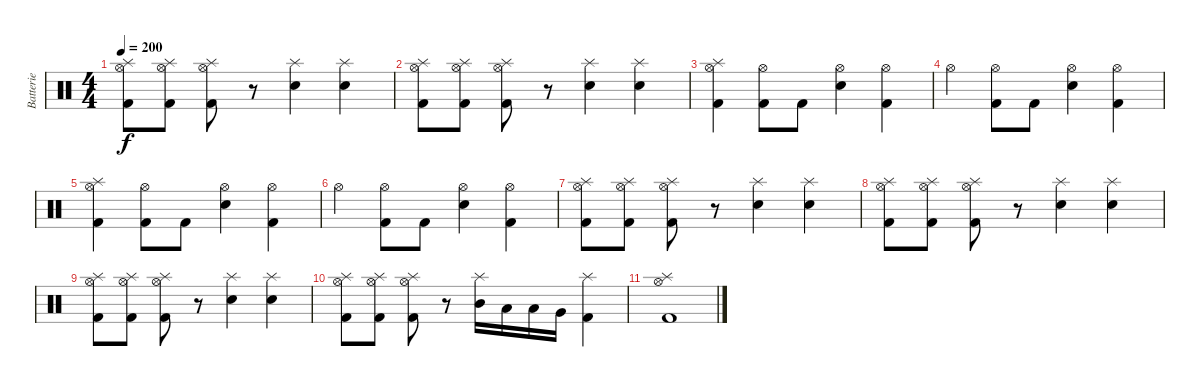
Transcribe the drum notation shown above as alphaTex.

\track ("Batterie" "Batterie") {instrument percussion}
\staff {score}
\articulation defaults
\ts (4 4)
\tempo 200
\clef neutral
\ks c
("Splash (hit)" "Hi-Hat (open)" "Kick (hit) 2").8{dy f} ("Splash (hit)" "Hi-Hat (open)" "Kick (hit) 2").8 ("Splash (hit)" "Hi-Hat (open)" "Kick (hit) 2").8 r.8 ("Splash (hit)" "Snare (hit) 2").4 ("Splash (hit)" "Snare (hit) 2").4 |
("Splash (hit)" "Hi-Hat (open)" "Kick (hit) 2").8 ("Splash (hit)" "Hi-Hat (open)" "Kick (hit) 2").8 ("Splash (hit)" "Hi-Hat (open)" "Kick (hit) 2").8 r.8 ("Splash (hit)" "Snare (hit) 2").4 ("Splash (hit)" "Snare (hit) 2").4 |
("Splash (hit)" "Hi-Hat (open)" "Kick (hit) 2").4 ("Hi-Hat (open)" "Kick (hit) 2").8 "Kick (hit) 2".8 ("Hi-Hat (open)" "Snare (hit) 2").4 ("Hi-Hat (open)" "Kick (hit) 2").4 |
"Hi-Hat (open)".4 ("Hi-Hat (open)" "Kick (hit) 2").8 "Kick (hit) 2".8 ("Hi-Hat (open)" "Snare (hit) 2").4 ("Hi-Hat (open)" "Kick (hit) 2").4 |
("Splash (hit)" "Hi-Hat (open)" "Kick (hit) 2").4 ("Hi-Hat (open)" "Kick (hit) 2").8 "Kick (hit) 2".8 ("Hi-Hat (open)" "Snare (hit) 2").4 ("Hi-Hat (open)" "Kick (hit) 2").4 |
"Hi-Hat (open)".4 ("Hi-Hat (open)" "Kick (hit) 2").8 "Kick (hit) 2".8 ("Hi-Hat (open)" "Snare (hit) 2").4 ("Hi-Hat (open)" "Kick (hit) 2").4 |
("Splash (hit)" "Hi-Hat (open)" "Kick (hit) 2").8 ("Splash (hit)" "Hi-Hat (open)" "Kick (hit) 2").8 ("Splash (hit)" "Hi-Hat (open)" "Kick (hit) 2").8 r.8 ("Splash (hit)" "Snare (hit) 2").4 ("Splash (hit)" "Snare (hit) 2").4 |
("Splash (hit)" "Hi-Hat (open)" "Kick (hit) 2").8 ("Splash (hit)" "Hi-Hat (open)" "Kick (hit) 2").8 ("Splash (hit)" "Hi-Hat (open)" "Kick (hit) 2").8 r.8 ("Splash (hit)" "Snare (hit) 2").4 ("Splash (hit)" "Snare (hit) 2").4 |
("Splash (hit)" "Hi-Hat (open)" "Kick (hit) 2").8 ("Splash (hit)" "Hi-Hat (open)" "Kick (hit) 2").8 ("Splash (hit)" "Hi-Hat (open)" "Kick (hit) 2").8 r.8 ("Splash (hit)" "Snare (hit) 2").4 ("Splash (hit)" "Snare (hit) 2").4 |
("Splash (hit)" "Hi-Hat (open)" "Kick (hit) 2").8 ("Splash (hit)" "Hi-Hat (open)" "Kick (hit) 2").8 ("Splash (hit)" "Hi-Hat (open)" "Kick (hit) 2").8 r.8 ("Splash (hit)" "Mid Tom (hit)").16 "Low Tom (hit)".16 "Low Tom (hit)".16 "Very Low Tom (hit)".16 ("Splash (hit)" "Kick (hit) 2").4 |
("Splash (hit)" "Hi-Hat (open)" "Kick (hit) 2").1
